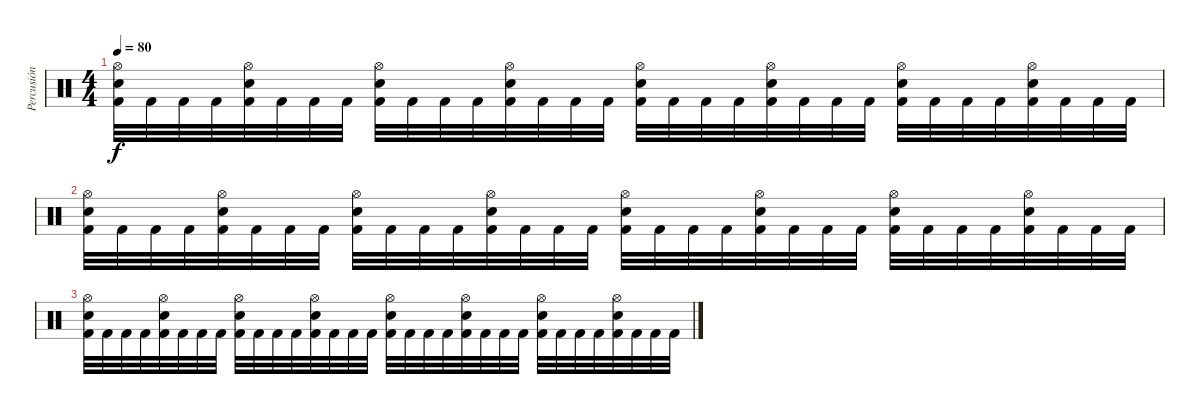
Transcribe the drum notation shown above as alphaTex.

\track ("Percusión" "Percusión") {instrument percussion}
\staff {score}
\articulation defaults
\ts (4 4)
\tempo 80
\clef neutral
\ks c
("Kick (hit) 2" "Electric Snare (hit)" "Hi-Hat (open)").32{dy f} "Kick (hit) 2".32 "Kick (hit) 2".32 "Kick (hit) 2".32 ("Kick (hit) 2" "Electric Snare (hit)" "Hi-Hat (open)").32 "Kick (hit) 2".32 "Kick (hit) 2".32 "Kick (hit) 2".32 ("Kick (hit) 2" "Electric Snare (hit)" "Hi-Hat (open)").32 "Kick (hit) 2".32 "Kick (hit) 2".32 "Kick (hit) 2".32 ("Kick (hit) 2" "Electric Snare (hit)" "Hi-Hat (open)").32 "Kick (hit) 2".32 "Kick (hit) 2".32 "Kick (hit) 2".32 ("Kick (hit) 2" "Electric Snare (hit)" "Hi-Hat (open)").32 "Kick (hit) 2".32 "Kick (hit) 2".32 "Kick (hit) 2".32 ("Kick (hit) 2" "Electric Snare (hit)" "Hi-Hat (open)").32 "Kick (hit) 2".32 "Kick (hit) 2".32 "Kick (hit) 2".32 ("Kick (hit) 2" "Electric Snare (hit)" "Hi-Hat (open)").32 "Kick (hit) 2".32 "Kick (hit) 2".32 "Kick (hit) 2".32 ("Kick (hit) 2" "Electric Snare (hit)" "Hi-Hat (open)").32 "Kick (hit) 2".32 "Kick (hit) 2".32 "Kick (hit) 2".32 |
("Kick (hit) 2" "Electric Snare (hit)" "Hi-Hat (open)").32 "Kick (hit) 2".32 "Kick (hit) 2".32 "Kick (hit) 2".32 ("Kick (hit) 2" "Electric Snare (hit)" "Hi-Hat (open)").32 "Kick (hit) 2".32 "Kick (hit) 2".32 "Kick (hit) 2".32 ("Kick (hit) 2" "Electric Snare (hit)" "Hi-Hat (open)").32 "Kick (hit) 2".32 "Kick (hit) 2".32 "Kick (hit) 2".32 ("Kick (hit) 2" "Electric Snare (hit)" "Hi-Hat (open)").32 "Kick (hit) 2".32 "Kick (hit) 2".32 "Kick (hit) 2".32 ("Kick (hit) 2" "Electric Snare (hit)" "Hi-Hat (open)").32 "Kick (hit) 2".32 "Kick (hit) 2".32 "Kick (hit) 2".32 ("Kick (hit) 2" "Electric Snare (hit)" "Hi-Hat (open)").32 "Kick (hit) 2".32 "Kick (hit) 2".32 "Kick (hit) 2".32 ("Kick (hit) 2" "Electric Snare (hit)" "Hi-Hat (open)").32 "Kick (hit) 2".32 "Kick (hit) 2".32 "Kick (hit) 2".32 ("Kick (hit) 2" "Electric Snare (hit)" "Hi-Hat (open)").32 "Kick (hit) 2".32 "Kick (hit) 2".32 "Kick (hit) 2".32 |
("Kick (hit) 2" "Electric Snare (hit)" "Hi-Hat (open)").32 "Kick (hit) 2".32 "Kick (hit) 2".32 "Kick (hit) 2".32 ("Kick (hit) 2" "Electric Snare (hit)" "Hi-Hat (open)").32 "Kick (hit) 2".32 "Kick (hit) 2".32 "Kick (hit) 2".32 ("Kick (hit) 2" "Electric Snare (hit)" "Hi-Hat (open)").32 "Kick (hit) 2".32 "Kick (hit) 2".32 "Kick (hit) 2".32 ("Kick (hit) 2" "Electric Snare (hit)" "Hi-Hat (open)").32 "Kick (hit) 2".32 "Kick (hit) 2".32 "Kick (hit) 2".32 ("Kick (hit) 2" "Electric Snare (hit)" "Hi-Hat (open)").32 "Kick (hit) 2".32 "Kick (hit) 2".32 "Kick (hit) 2".32 ("Kick (hit) 2" "Electric Snare (hit)" "Hi-Hat (open)").32 "Kick (hit) 2".32 "Kick (hit) 2".32 "Kick (hit) 2".32 ("Kick (hit) 2" "Electric Snare (hit)" "Hi-Hat (open)").32 "Kick (hit) 2".32 "Kick (hit) 2".32 "Kick (hit) 2".32 ("Kick (hit) 2" "Electric Snare (hit)" "Hi-Hat (open)").32 "Kick (hit) 2".32 "Kick (hit) 2".32 "Kick (hit) 2".32
